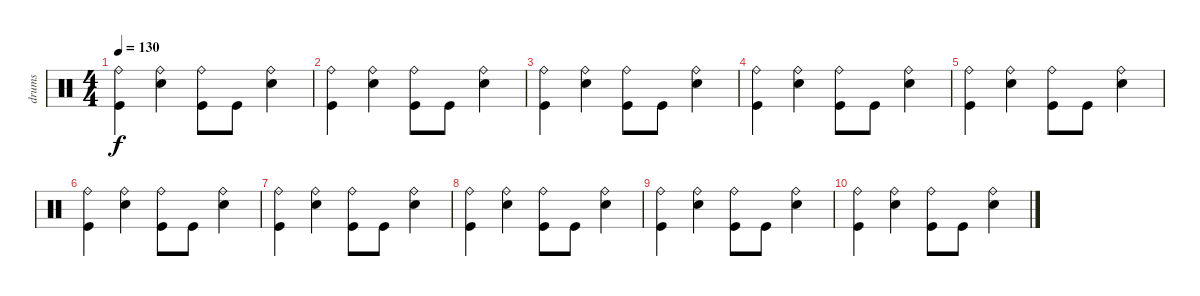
\track ("drums" "drums") {instrument percussion}
\staff {score}
\articulation defaults
\ts (4 4)
\tempo 130
\clef neutral
\ks c
("Ride (bell)" "Kick (hit)").4{dy f} ("Ride (bell)" "Electric Snare (hit)").4 ("Ride (bell)" "Kick (hit)").8 "Kick (hit)".8 ("Ride (bell)" "Electric Snare (hit)").4 |
("Ride (bell)" "Kick (hit)").4 ("Ride (bell)" "Electric Snare (hit)").4 ("Ride (bell)" "Kick (hit)").8 "Kick (hit)".8 ("Ride (bell)" "Electric Snare (hit)").4 |
("Ride (bell)" "Kick (hit)").4 ("Ride (bell)" "Electric Snare (hit)").4 ("Ride (bell)" "Kick (hit)").8 "Kick (hit)".8 ("Ride (bell)" "Electric Snare (hit)").4 |
("Ride (bell)" "Kick (hit)").4 ("Ride (bell)" "Electric Snare (hit)").4 ("Ride (bell)" "Kick (hit)").8 "Kick (hit)".8 ("Ride (bell)" "Electric Snare (hit)").4 |
("Ride (bell)" "Kick (hit)").4 ("Ride (bell)" "Electric Snare (hit)").4 ("Ride (bell)" "Kick (hit)").8 "Kick (hit)".8 ("Ride (bell)" "Electric Snare (hit)").4 |
("Ride (bell)" "Kick (hit)").4 ("Ride (bell)" "Electric Snare (hit)").4 ("Ride (bell)" "Kick (hit)").8 "Kick (hit)".8 ("Ride (bell)" "Electric Snare (hit)").4 |
("Ride (bell)" "Kick (hit)").4 ("Ride (bell)" "Electric Snare (hit)").4 ("Ride (bell)" "Kick (hit)").8 "Kick (hit)".8 ("Ride (bell)" "Electric Snare (hit)").4 |
("Ride (bell)" "Kick (hit)").4 ("Ride (bell)" "Electric Snare (hit)").4 ("Ride (bell)" "Kick (hit)").8 "Kick (hit)".8 ("Ride (bell)" "Electric Snare (hit)").4 |
("Ride (bell)" "Kick (hit)").4 ("Ride (bell)" "Electric Snare (hit)").4 ("Ride (bell)" "Kick (hit)").8 "Kick (hit)".8 ("Ride (bell)" "Electric Snare (hit)").4 |
("Ride (bell)" "Kick (hit)").4 ("Ride (bell)" "Electric Snare (hit)").4 ("Ride (bell)" "Kick (hit)").8 "Kick (hit)".8 ("Ride (bell)" "Electric Snare (hit)").4
